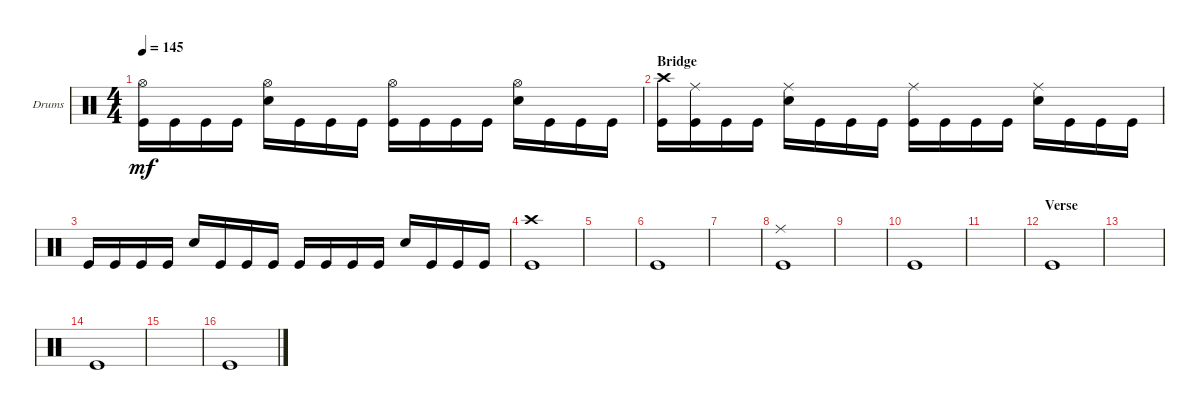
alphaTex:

\defaultSystemsLayout 4
\bracketExtendMode groupsimilarinstruments
\firstSystemTrackNameOrientation horizontal
\otherSystemsTrackNameOrientation horizontal
\track ("Drumkit" "Drums") {instrument percussion}
\staff {score}
\articulation defaults
\ts (4 4)
\tempo 145
\clef neutral
\ks c
("Kick (hit)" "Hi-Hat (open)").16{dy mf} "Kick (hit)".16 "Kick (hit)".16 "Kick (hit)".16 ("Snare (hit) 2" "Hi-Hat (open)").16 "Kick (hit)".16 "Kick (hit)".16 "Kick (hit)".16 ("Kick (hit)" "Hi-Hat (open)").16 "Kick (hit)".16 "Kick (hit)".16 "Kick (hit)".16 ("Snare (hit) 2" "Hi-Hat (open)").16 "Kick (hit)".16 "Kick (hit)".16 "Kick (hit)".16 |
\section ("" "Bridge")
("Kick (hit)" "Crash high (hit)").16 ("Kick (hit)" "Ride (middle)").16 "Kick (hit)".16 "Kick (hit)".16 ("Snare (hit) 2" "Ride (middle)").16 "Kick (hit)".16 "Kick (hit)".16 "Kick (hit)".16 ("Kick (hit)" "Ride (middle)").16 "Kick (hit)".16 "Kick (hit)".16 "Kick (hit)".16 ("Snare (hit) 2" "Ride (middle)").16 "Kick (hit)".16 "Kick (hit)".16 "Kick (hit)".16 |
"Kick (hit)".16 "Kick (hit)".16 "Kick (hit)".16 "Kick (hit)".16 "Snare (hit) 2".16 "Kick (hit)".16 "Kick (hit)".16 "Kick (hit)".16 "Kick (hit)".16 "Kick (hit)".16 "Kick (hit)".16 "Kick (hit)".16 "Snare (hit) 2".16 "Kick (hit)".16 "Kick (hit)".16 "Kick (hit)".16 |
("Kick (hit)" "Crash high (hit)").1 |
|
"Kick (hit)".1 |
|
("Kick (hit)" "Ride (middle)").1 |
|
"Kick (hit)".1 |
|
\section ("" "Verse")
"Kick (hit)".1 |
|
"Kick (hit)".1 |
|
"Kick (hit)".1
